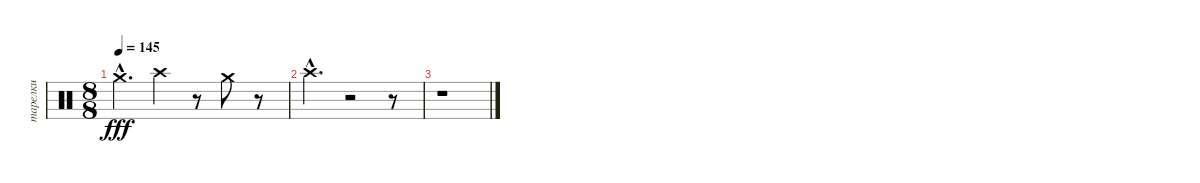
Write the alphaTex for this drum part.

\track ("тарелки" "тарелки") {instrument percussion}
\staff {score}
\articulation defaults
\ts (8 8)
\tempo 145
\clef neutral
\ks c "Crash medium (hit)"{hac}.4{d dy fff} "Crash high (hit)".4
r.8 "Crash medium (hit)".8 r.8 |
"Crash high (hit)"{hac}.4{d} r.2 r.8 |
r.1
